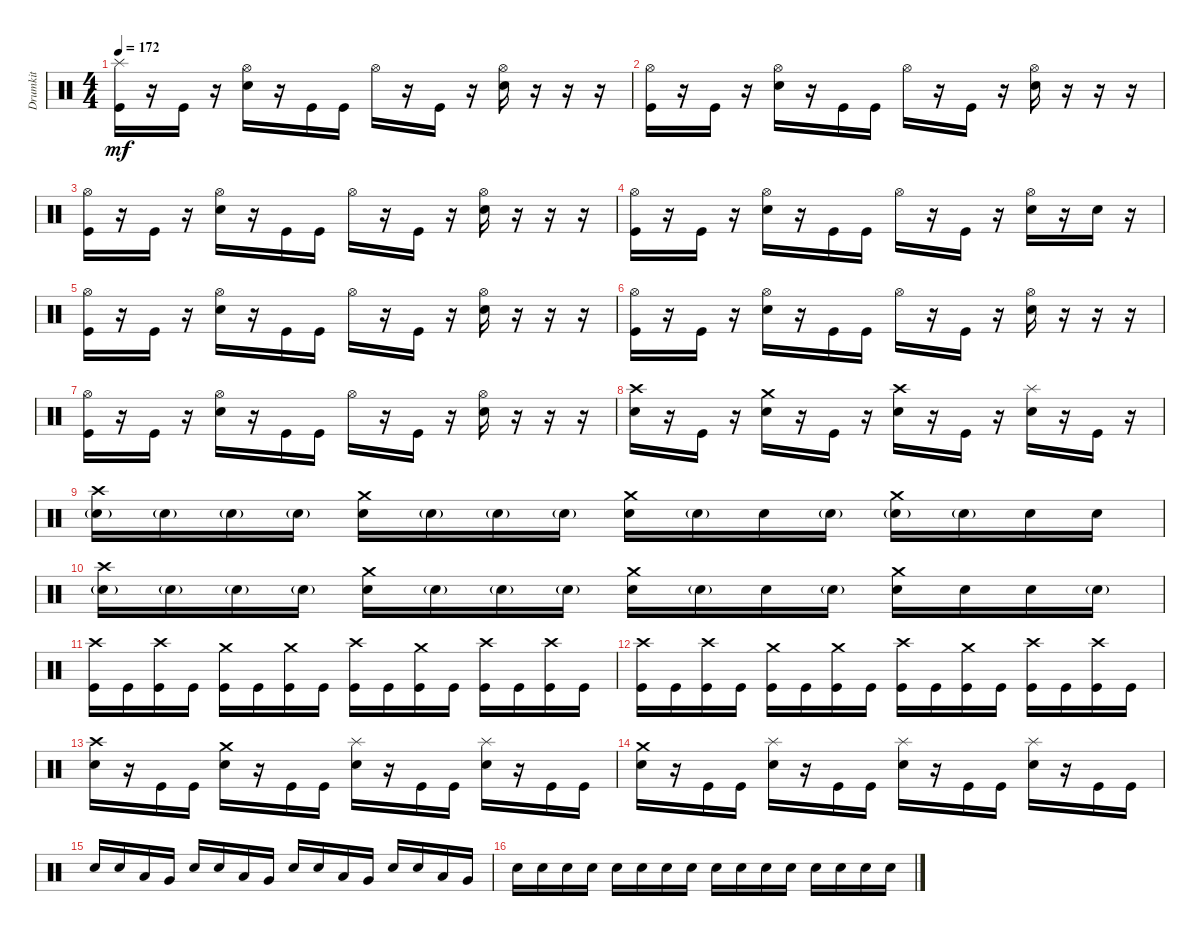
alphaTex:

\track ("Drumkit" "Drumkit") {instrument percussion}
\staff {score}
\articulation defaults
\ts (4 4)
\tempo 172
\clef neutral
\ks c
("Kick (hit)" "Splash (hit)").16{dy mf} r.16 "Kick (hit)".16 r.16 ("Hi-Hat (open)" "Snare (hit) 2").16 r.16 "Kick (hit)".16 "Kick (hit)".16 "Hi-Hat (open)".16 r.16 "Kick (hit)".16 r.16 ("Hi-Hat (open)" "Snare (hit) 2").16 r.16 r.16 r.16 |
("Hi-Hat (open)" "Kick (hit)").16 r.16 "Kick (hit)".16 r.16 ("Hi-Hat (open)" "Snare (hit) 2").16 r.16 "Kick (hit)".16 "Kick (hit)".16 "Hi-Hat (open)".16 r.16 "Kick (hit)".16 r.16 ("Hi-Hat (open)" "Snare (hit) 2").16 r.16 r.16 r.16 |
("Hi-Hat (open)" "Kick (hit)").16 r.16 "Kick (hit)".16 r.16 ("Hi-Hat (open)" "Snare (hit) 2").16 r.16 "Kick (hit)".16 "Kick (hit)".16 "Hi-Hat (open)".16 r.16 "Kick (hit)".16 r.16 ("Hi-Hat (open)" "Snare (hit) 2").16 r.16 r.16 r.16 |
("Hi-Hat (open)" "Kick (hit)").16 r.16 "Kick (hit)".16 r.16 ("Hi-Hat (open)" "Snare (hit) 2").16 r.16 "Kick (hit)".16 "Kick (hit)".16 "Hi-Hat (open)".16 r.16 "Kick (hit)".16 r.16 ("Hi-Hat (open)" "Snare (hit) 2").16 r.16 "Snare (hit) 2".16 r.16 |
("Hi-Hat (open)" "Kick (hit)").16 r.16 "Kick (hit)".16 r.16 ("Hi-Hat (open)" "Snare (hit) 2").16 r.16 "Kick (hit)".16 "Kick (hit)".16 "Hi-Hat (open)".16 r.16 "Kick (hit)".16 r.16 ("Hi-Hat (open)" "Snare (hit) 2").16 r.16 r.16 r.16 |
("Hi-Hat (open)" "Kick (hit)").16 r.16 "Kick (hit)".16 r.16 ("Hi-Hat (open)" "Snare (hit) 2").16 r.16 "Kick (hit)".16 "Kick (hit)".16 "Hi-Hat (open)".16 r.16 "Kick (hit)".16 r.16 ("Hi-Hat (open)" "Snare (hit) 2").16 r.16 r.16 r.16 |
("Hi-Hat (open)" "Kick (hit)").16 r.16 "Kick (hit)".16 r.16 ("Hi-Hat (open)" "Snare (hit) 2").16 r.16 "Kick (hit)".16 "Kick (hit)".16 "Hi-Hat (open)".16 r.16 "Kick (hit)".16 r.16 ("Hi-Hat (open)" "Snare (hit) 2").16 r.16 r.16 r.16 |
("Crash high (hit)" "Snare (hit) 2").16 r.16 "Kick (hit)".16 r.16 ("Snare (hit) 2" "Crash medium (hit)").16 r.16 "Kick (hit)".16 r.16 ("Snare (hit) 2" "Crash high (hit)").16 r.16 "Kick (hit)".16 r.16 ("Snare (hit) 2" "Splash (hit)").16 r.16 "Kick (hit)".16 r.16 |
("Snare (hit) 2"{g} "Crash high (hit)").16 "Snare (hit) 2"{g}.16 "Snare (hit) 2"{g}.16 "Snare (hit) 2"{g}.16 ("Snare (hit) 2" "Crash medium (hit)").16 "Snare (hit) 2"{g}.16 "Snare (hit) 2"{g}.16 "Snare (hit) 2"{g}.16 ("Snare (hit) 2" "Crash medium (hit)").16 "Snare (hit) 2"{g}.16 "Snare (hit) 2".16 "Snare (hit) 2"{g}.16 ("Snare (hit) 2"{g} "Crash medium (hit)").16 "Snare (hit) 2"{g}.16 "Snare (hit) 2".16 "Snare (hit) 2".16 |
("Snare (hit) 2"{g} "Crash high (hit)").16 "Snare (hit) 2"{g}.16 "Snare (hit) 2"{g}.16 "Snare (hit) 2"{g}.16 ("Snare (hit) 2" "Crash medium (hit)").16 "Snare (hit) 2"{g}.16 "Snare (hit) 2"{g}.16 "Snare (hit) 2"{g}.16 ("Snare (hit) 2" "Crash medium (hit)").16 "Snare (hit) 2"{g}.16 "Snare (hit) 2".16 "Snare (hit) 2"{g}.16 ("Snare (hit) 2" "Crash medium (hit)").16 "Snare (hit) 2".16 "Snare (hit) 2".16 "Snare (hit) 2"{g}.16 |
("Kick (hit)" "Crash high (hit)").16 "Kick (hit)".16 ("Kick (hit)" "Crash high (hit)").16 "Kick (hit)".16 ("Kick (hit)" "Crash medium (hit)").16 "Kick (hit)".16 ("Kick (hit)" "Crash medium (hit)").16 "Kick (hit)".16 ("Kick (hit)" "Crash high (hit)").16 "Kick (hit)".16 ("Kick (hit)" "Crash medium (hit)").16 "Kick (hit)".16 ("Kick (hit)" "Crash high (hit)").16 "Kick (hit)".16 ("Kick (hit)" "Crash high (hit)").16 "Kick (hit)".16 |
("Kick (hit)" "Crash high (hit)").16 "Kick (hit)".16 ("Kick (hit)" "Crash high (hit)").16 "Kick (hit)".16 ("Kick (hit)" "Crash medium (hit)").16 "Kick (hit)".16 ("Kick (hit)" "Crash medium (hit)").16 "Kick (hit)".16 ("Kick (hit)" "Crash high (hit)").16 "Kick (hit)".16 ("Kick (hit)" "Crash medium (hit)").16 "Kick (hit)".16 ("Kick (hit)" "Crash high (hit)").16 "Kick (hit)".16 ("Kick (hit)" "Crash high (hit)").16 "Kick (hit)".16 |
("Snare (hit) 2" "Crash high (hit)").16 r.16 "Kick (hit)".16 "Kick (hit)".16 ("Snare (hit) 2" "Crash medium (hit)").16 r.16 "Kick (hit)".16 "Kick (hit)".16 ("Snare (hit) 2" "Splash (hit)").16 r.16 "Kick (hit)".16 "Kick (hit)".16 ("Snare (hit) 2" "Splash (hit)").16 r.16 "Kick (hit)".16 "Kick (hit)".16 |
("Snare (hit) 2" "Crash medium (hit)").16 r.16 "Kick (hit)".16 "Kick (hit)".16 ("Snare (hit) 2" "Splash (hit)").16 r.16 "Kick (hit)".16 "Kick (hit)".16 ("Snare (hit) 2" "Splash (hit)").16 r.16 "Kick (hit)".16 "Kick (hit)".16 ("Snare (hit) 2" "Splash (hit)").16 r.16 "Kick (hit)".16 "Kick (hit)".16 |
"Snare (hit) 2".16 "Snare (hit) 2".16 "Low Tom (hit)".16 "Very Low Tom (hit)".16 "Snare (hit) 2".16 "Snare (hit) 2".16 "Low Tom (hit)".16 "Very Low Tom (hit)".16 "Snare (hit) 2".16 "Snare (hit) 2".16 "Low Tom (hit)".16 "Very Low Tom (hit)".16 "Snare (hit) 2".16 "Snare (hit) 2".16 "Low Tom (hit)".16 "Very Low Tom (hit)".16 |
"Snare (hit) 2".16 "Snare (hit) 2".16 "Snare (hit) 2".16 "Snare (hit) 2".16 "Snare (hit) 2".16 "Snare (hit) 2".16 "Snare (hit) 2".16 "Snare (hit) 2".16 "Snare (hit) 2".16 "Snare (hit) 2".16 "Snare (hit) 2".16 "Snare (hit) 2".16 "Snare (hit) 2".16 "Snare (hit) 2".16 "Snare (hit) 2".16 "Snare (hit) 2".16
